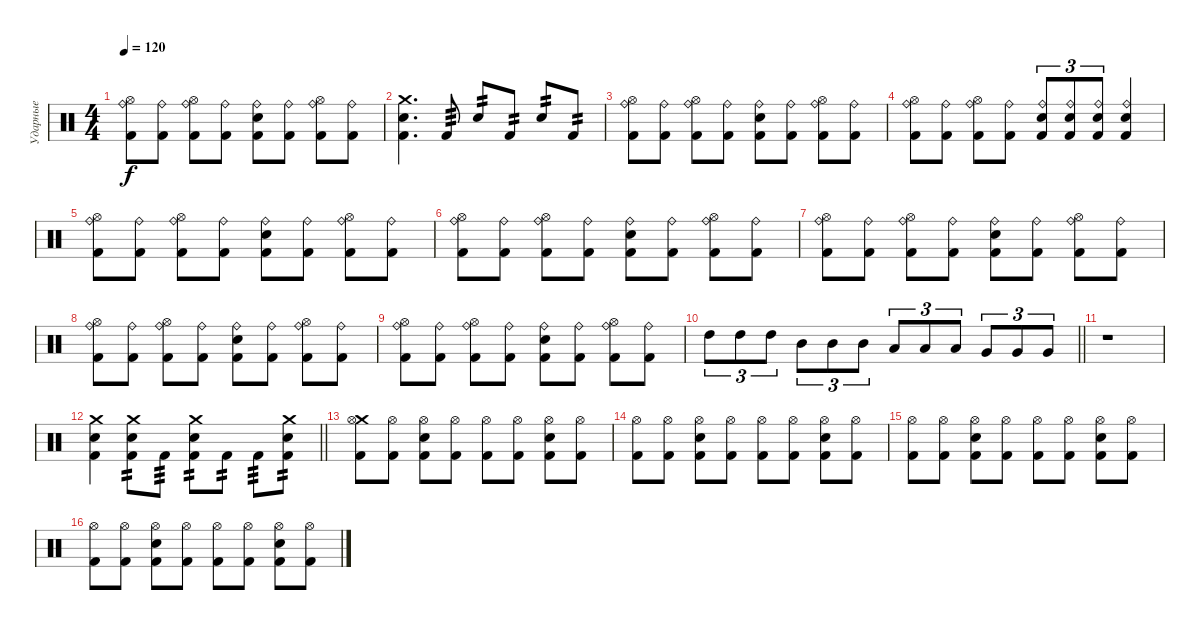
\track ("Ударные" "Ударные") {instrument percussion}
\staff {score}
\articulation defaults
\ts (4 4)
\tempo 120
\clef neutral
\ks c
("Kick (hit) 2" "Ride (bell)" "Hi-Hat (open)").8{dy f} ("Kick (hit) 2" "Ride (bell)").8 ("Kick (hit) 2" "Ride (bell)" "Hi-Hat (open)").8 ("Kick (hit) 2" "Ride (bell)").8 ("Kick (hit) 2" "Ride (bell)" "Snare (hit) 2").8 ("Kick (hit) 2" "Ride (bell)").8 ("Kick (hit) 2" "Ride (bell)" "Hi-Hat (open)").8 ("Kick (hit) 2" "Ride (bell)").8 |
("Kick (hit) 2" "Snare (hit) 2" "Crash medium (hit)").4{d} "Kick (hit) 2".8{tp 3} "Snare (hit) 2".8{tp 2} "Kick (hit) 2".8{tp 2} "Snare (hit) 2".8{tp 2} "Kick (hit) 2".8{tp 2} |
("Kick (hit) 2" "Ride (bell)" "Hi-Hat (open)").8 ("Kick (hit) 2" "Ride (bell)").8 ("Kick (hit) 2" "Ride (bell)" "Hi-Hat (open)").8 ("Kick (hit) 2" "Ride (bell)").8 ("Kick (hit) 2" "Ride (bell)" "Snare (hit) 2").8 ("Kick (hit) 2" "Ride (bell)").8 ("Kick (hit) 2" "Ride (bell)" "Hi-Hat (open)").8 ("Kick (hit) 2" "Ride (bell)").8 |
("Kick (hit) 2" "Ride (bell)" "Hi-Hat (open)").8 ("Kick (hit) 2" "Ride (bell)").8 ("Kick (hit) 2" "Ride (bell)" "Hi-Hat (open)").8 ("Kick (hit) 2" "Ride (bell)").8 ("Kick (hit) 2" "Ride (bell)" "Snare (hit) 2").8{tu (3 2)} ("Kick (hit) 2" "Ride (bell)" "Snare (hit) 2").8{tu (3 2)} ("Kick (hit) 2" "Ride (bell)" "Snare (hit) 2").8{tu (3 2)} ("Kick (hit) 2" "Ride (bell)" "Snare (hit) 2").4 |
("Kick (hit) 2" "Ride (bell)" "Hi-Hat (open)").8 ("Kick (hit) 2" "Ride (bell)").8 ("Kick (hit) 2" "Ride (bell)" "Hi-Hat (open)").8 ("Kick (hit) 2" "Ride (bell)").8 ("Kick (hit) 2" "Ride (bell)" "Snare (hit) 2").8 ("Kick (hit) 2" "Ride (bell)").8 ("Kick (hit) 2" "Ride (bell)" "Hi-Hat (open)").8 ("Kick (hit) 2" "Ride (bell)").8 |
("Kick (hit) 2" "Ride (bell)" "Hi-Hat (open)").8 ("Kick (hit) 2" "Ride (bell)").8 ("Kick (hit) 2" "Ride (bell)" "Hi-Hat (open)").8 ("Kick (hit) 2" "Ride (bell)").8 ("Kick (hit) 2" "Ride (bell)" "Snare (hit) 2").8 ("Kick (hit) 2" "Ride (bell)").8 ("Kick (hit) 2" "Ride (bell)" "Hi-Hat (open)").8 ("Kick (hit) 2" "Ride (bell)").8 |
("Kick (hit) 2" "Ride (bell)" "Hi-Hat (open)").8 ("Kick (hit) 2" "Ride (bell)").8 ("Kick (hit) 2" "Ride (bell)" "Hi-Hat (open)").8 ("Kick (hit) 2" "Ride (bell)").8 ("Kick (hit) 2" "Ride (bell)" "Snare (hit) 2").8 ("Kick (hit) 2" "Ride (bell)").8 ("Kick (hit) 2" "Ride (bell)" "Hi-Hat (open)").8 ("Kick (hit) 2" "Ride (bell)").8 |
("Kick (hit) 2" "Ride (bell)" "Hi-Hat (open)").8 ("Kick (hit) 2" "Ride (bell)").8 ("Kick (hit) 2" "Ride (bell)" "Hi-Hat (open)").8 ("Kick (hit) 2" "Ride (bell)").8 ("Kick (hit) 2" "Ride (bell)" "Snare (hit) 2").8 ("Kick (hit) 2" "Ride (bell)").8 ("Kick (hit) 2" "Ride (bell)" "Hi-Hat (open)").8 ("Kick (hit) 2" "Ride (bell)").8 |
("Kick (hit) 2" "Ride (bell)" "Hi-Hat (open)").8 ("Kick (hit) 2" "Ride (bell)").8 ("Kick (hit) 2" "Ride (bell)" "Hi-Hat (open)").8 ("Kick (hit) 2" "Ride (bell)").8 ("Kick (hit) 2" "Ride (bell)" "Snare (hit) 2").8 ("Kick (hit) 2" "Ride (bell)").8 ("Kick (hit) 2" "Ride (bell)" "Hi-Hat (open)").8 ("Kick (hit) 2" "Ride (bell)").8 |
\barLineRight lightlight "High Tom (hit)".8{tu (3 2)} "High Tom (hit)".8{tu (3 2)} "High Tom (hit)".8{tu (3 2)} "Mid Tom (hit)".8{tu (3 2)} "Mid Tom (hit)".8{tu (3 2)} "Mid Tom (hit)".8{tu (3 2)} "Low Tom (hit)".8{tu (3 2)} "Low Tom (hit)".8{tu (3 2)} "Low Tom (hit)".8{tu (3 2)} "Very Low Tom (hit)".8{tu (3 2)} "Very Low Tom (hit)".8{tu (3 2)} "Very Low Tom (hit)".8{tu (3 2)}
|
r.1 |
\barLineRight lightlight
("Kick (hit) 2" "Snare (hit) 2" "Crash medium (hit)").4{volume 14} ("Kick (hit) 2" "Snare (hit) 2" "Crash medium (hit)").8{tp 2} "Kick (hit) 2".8{tp 3} ("Kick (hit) 2" "Snare (hit) 2" "Crash medium (hit)").8{tp 2} "Kick (hit) 2".8{tp 2} "Kick (hit) 2".8{tp 3} ("Kick (hit) 2" "Snare (hit) 2" "Crash medium (hit)").8{tp 2} |
("Kick (hit) 2" "Crash medium (hit)" "Hi-Hat (open)").8 ("Kick (hit) 2" "Hi-Hat (open)").8 ("Kick (hit) 2" "Hi-Hat (open)" "Snare (hit) 2").8 ("Kick (hit) 2" "Hi-Hat (open)").8 ("Kick (hit) 2" "Hi-Hat (open)").8 ("Kick (hit) 2" "Hi-Hat (open)").8 ("Kick (hit) 2" "Hi-Hat (open)" "Snare (hit) 2").8 ("Kick (hit) 2" "Hi-Hat (open)").8 |
("Kick (hit) 2" "Hi-Hat (open)").8 ("Kick (hit) 2" "Hi-Hat (open)").8 ("Kick (hit) 2" "Hi-Hat (open)" "Snare (hit) 2").8 ("Kick (hit) 2" "Hi-Hat (open)").8 ("Kick (hit) 2" "Hi-Hat (open)").8 ("Kick (hit) 2" "Hi-Hat (open)").8 ("Kick (hit) 2" "Hi-Hat (open)" "Snare (hit) 2").8 ("Kick (hit) 2" "Hi-Hat (open)").8 |
("Kick (hit) 2" "Hi-Hat (open)").8 ("Kick (hit) 2" "Hi-Hat (open)").8 ("Kick (hit) 2" "Hi-Hat (open)" "Snare (hit) 2").8 ("Kick (hit) 2" "Hi-Hat (open)").8 ("Kick (hit) 2" "Hi-Hat (open)").8 ("Kick (hit) 2" "Hi-Hat (open)").8 ("Kick (hit) 2" "Hi-Hat (open)" "Snare (hit) 2").8 ("Kick (hit) 2" "Hi-Hat (open)").8 |
("Kick (hit) 2" "Hi-Hat (open)").8 ("Kick (hit) 2" "Hi-Hat (open)").8 ("Kick (hit) 2" "Hi-Hat (open)" "Snare (hit) 2").8 ("Kick (hit) 2" "Hi-Hat (open)").8 ("Kick (hit) 2" "Hi-Hat (open)").8 ("Kick (hit) 2" "Hi-Hat (open)").8 ("Kick (hit) 2" "Hi-Hat (open)" "Snare (hit) 2").8 ("Kick (hit) 2" "Hi-Hat (open)").8
